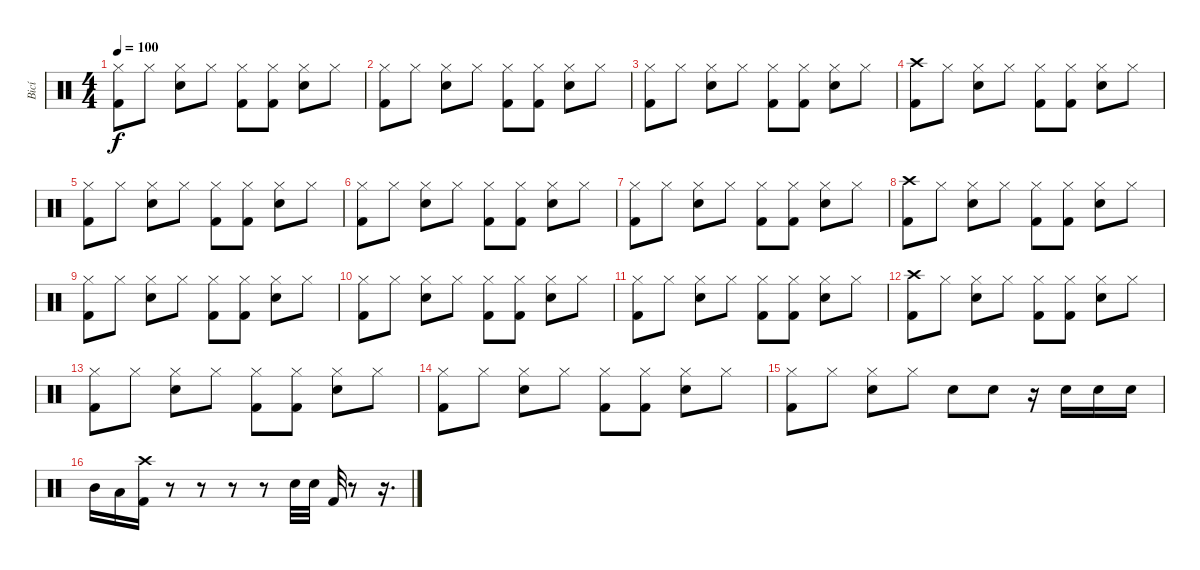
\track ("Bicí" "Bicí") {instrument percussion}
\staff {score}
\articulation defaults
\ts (4 4)
\tempo 100
\clef neutral
\ks c
("Hi-Hat (closed)" "Kick (hit) 2").8{dy f} "Hi-Hat (closed)".8 ("Hi-Hat (closed)" "Electric Snare (hit)").8 "Hi-Hat (closed)".8 ("Hi-Hat (closed)" "Kick (hit) 2").8 ("Hi-Hat (closed)" "Kick (hit) 2").8 ("Hi-Hat (closed)" "Electric Snare (hit)").8 "Hi-Hat (closed)".8 |
("Hi-Hat (closed)" "Kick (hit) 2").8 "Hi-Hat (closed)".8 ("Hi-Hat (closed)" "Electric Snare (hit)").8 "Hi-Hat (closed)".8 ("Hi-Hat (closed)" "Kick (hit) 2").8 ("Hi-Hat (closed)" "Kick (hit) 2").8 ("Hi-Hat (closed)" "Electric Snare (hit)").8 "Hi-Hat (closed)".8 |
("Hi-Hat (closed)" "Kick (hit) 2").8 "Hi-Hat (closed)".8 ("Hi-Hat (closed)" "Electric Snare (hit)").8 "Hi-Hat (closed)".8 ("Hi-Hat (closed)" "Kick (hit) 2").8 ("Hi-Hat (closed)" "Kick (hit) 2").8 ("Hi-Hat (closed)" "Electric Snare (hit)").8 "Hi-Hat (closed)".8 |
("Crash high (hit)" "Kick (hit) 2").8 "Hi-Hat (closed)".8 ("Hi-Hat (closed)" "Electric Snare (hit)").8 "Hi-Hat (closed)".8 ("Hi-Hat (closed)" "Kick (hit) 2").8 ("Hi-Hat (closed)" "Kick (hit) 2").8 ("Hi-Hat (closed)" "Electric Snare (hit)").8 "Hi-Hat (closed)".8 |
("Hi-Hat (closed)" "Kick (hit) 2").8 "Hi-Hat (closed)".8 ("Hi-Hat (closed)" "Electric Snare (hit)").8 "Hi-Hat (closed)".8 ("Hi-Hat (closed)" "Kick (hit) 2").8 ("Hi-Hat (closed)" "Kick (hit) 2").8 ("Hi-Hat (closed)" "Electric Snare (hit)").8 "Hi-Hat (closed)".8 |
("Hi-Hat (closed)" "Kick (hit) 2").8 "Hi-Hat (closed)".8 ("Hi-Hat (closed)" "Electric Snare (hit)").8 "Hi-Hat (closed)".8 ("Hi-Hat (closed)" "Kick (hit) 2").8 ("Hi-Hat (closed)" "Kick (hit) 2").8 ("Hi-Hat (closed)" "Electric Snare (hit)").8 "Hi-Hat (closed)".8 |
("Hi-Hat (closed)" "Kick (hit) 2").8 "Hi-Hat (closed)".8 ("Hi-Hat (closed)" "Electric Snare (hit)").8 "Hi-Hat (closed)".8 ("Hi-Hat (closed)" "Kick (hit) 2").8 ("Hi-Hat (closed)" "Kick (hit) 2").8 ("Hi-Hat (closed)" "Electric Snare (hit)").8 "Hi-Hat (closed)".8 |
("Crash high (hit)" "Kick (hit) 2").8 "Hi-Hat (closed)".8 ("Hi-Hat (closed)" "Electric Snare (hit)").8 "Hi-Hat (closed)".8 ("Hi-Hat (closed)" "Kick (hit) 2").8 ("Hi-Hat (closed)" "Kick (hit) 2").8 ("Hi-Hat (closed)" "Electric Snare (hit)").8 "Hi-Hat (closed)".8 |
("Hi-Hat (closed)" "Kick (hit) 2").8 "Hi-Hat (closed)".8 ("Hi-Hat (closed)" "Electric Snare (hit)").8 "Hi-Hat (closed)".8 ("Hi-Hat (closed)" "Kick (hit) 2").8 ("Hi-Hat (closed)" "Kick (hit) 2").8 ("Hi-Hat (closed)" "Electric Snare (hit)").8 "Hi-Hat (closed)".8 |
("Hi-Hat (closed)" "Kick (hit) 2").8 "Hi-Hat (closed)".8 ("Hi-Hat (closed)" "Electric Snare (hit)").8 "Hi-Hat (closed)".8 ("Hi-Hat (closed)" "Kick (hit) 2").8 ("Hi-Hat (closed)" "Kick (hit) 2").8 ("Hi-Hat (closed)" "Electric Snare (hit)").8 "Hi-Hat (closed)".8 |
("Hi-Hat (closed)" "Kick (hit) 2").8 "Hi-Hat (closed)".8 ("Hi-Hat (closed)" "Electric Snare (hit)").8 "Hi-Hat (closed)".8 ("Hi-Hat (closed)" "Kick (hit) 2").8 ("Hi-Hat (closed)" "Kick (hit) 2").8 ("Hi-Hat (closed)" "Electric Snare (hit)").8 "Hi-Hat (closed)".8 |
("Crash high (hit)" "Kick (hit) 2").8 "Hi-Hat (closed)".8 ("Hi-Hat (closed)" "Electric Snare (hit)").8 "Hi-Hat (closed)".8 ("Hi-Hat (closed)" "Kick (hit) 2").8 ("Hi-Hat (closed)" "Kick (hit) 2").8 ("Hi-Hat (closed)" "Electric Snare (hit)").8 "Hi-Hat (closed)".8 |
("Hi-Hat (closed)" "Kick (hit) 2").8 "Hi-Hat (closed)".8 ("Hi-Hat (closed)" "Electric Snare (hit)").8 "Hi-Hat (closed)".8 ("Hi-Hat (closed)" "Kick (hit) 2").8 ("Hi-Hat (closed)" "Kick (hit) 2").8 ("Hi-Hat (closed)" "Electric Snare (hit)").8 "Hi-Hat (closed)".8 |
("Hi-Hat (closed)" "Kick (hit) 2").8 "Hi-Hat (closed)".8 ("Hi-Hat (closed)" "Electric Snare (hit)").8 "Hi-Hat (closed)".8 ("Hi-Hat (closed)" "Kick (hit) 2").8 ("Hi-Hat (closed)" "Kick (hit) 2").8 ("Hi-Hat (closed)" "Electric Snare (hit)").8 "Hi-Hat (closed)".8 |
("Hi-Hat (closed)" "Kick (hit) 2").8 "Hi-Hat (closed)".8 ("Hi-Hat (closed)" "Electric Snare (hit)").8 "Hi-Hat (closed)".8 "Electric Snare (hit)".8 "Electric Snare (hit)".8 r.16 "Electric Snare (hit)".16 "Electric Snare (hit)".16 "Electric Snare (hit)".16 |
"Mid Tom (hit)".16 "Low Tom (hit)".16 ("Crash high (hit)" "Kick (hit) 2").16 r.8 r.8 r.8 r.8 "Electric Snare (hit)".32 "Electric Snare (hit)".32 "Kick (hit) 2".32 r.8 r.16{d}
